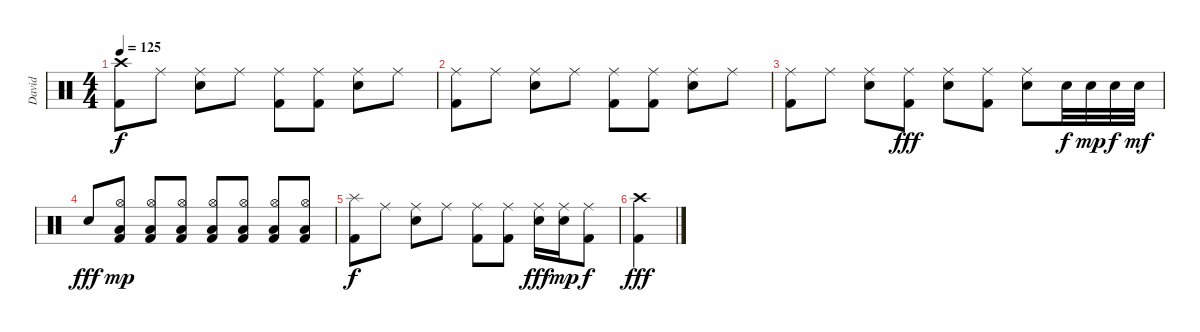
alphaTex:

\track ("David" "David") {instrument percussion}
\staff {score}
\articulation defaults
\ts (4 4)
\tempo 125
\clef neutral
\ks c
("Crash high (hit)" "Kick (hit) 2").8{dy f} "Ride (middle)".8 ("Ride (middle)" "Electric Snare (hit)").8 "Ride (middle)".8 ("Ride (middle)" "Kick (hit) 2").8 ("Ride (middle)" "Kick (hit) 2").8 ("Ride (middle)" "Electric Snare (hit)").8 "Ride (middle)".8 |
("Ride (middle)" "Kick (hit) 2").8 "Ride (middle)".8 ("Ride (middle)" "Electric Snare (hit)").8 "Ride (middle)".8 ("Ride (middle)" "Kick (hit) 2").8 ("Ride (middle)" "Kick (hit) 2").8 ("Ride (middle)" "Electric Snare (hit)").8 "Ride (middle)".8 |
("Ride (middle)" "Kick (hit) 2").8 "Ride (middle)".8 ("Ride (middle)" "Electric Snare (hit)").8 ("Ride (middle)" "Kick (hit) 2").8{dy fff} ("Ride (middle)" "Electric Snare (hit)").8 ("Ride (middle)" "Kick (hit) 2").8 ("Ride (middle)" "Electric Snare (hit)").8 "Electric Snare (hit)".32{dy f} "Electric Snare (hit)".32{dy mp} "Electric Snare (hit)".32{dy f} "Electric Snare (hit)".32{dy mf} |
"Electric Snare (hit)".8{dy fff} ("Hi-Hat (open)" "Low Floor Tom (hit)" "Kick (hit) 2").8{dy mp} ("Hi-Hat (open)" "Low Floor Tom (hit)" "Kick (hit) 2").8 ("Hi-Hat (open)" "Low Floor Tom (hit)" "Kick (hit) 2").8 ("Hi-Hat (open)" "Low Floor Tom (hit)" "Kick (hit) 2").8 ("Hi-Hat (open)" "Low Floor Tom (hit)" "Kick (hit) 2").8 ("Hi-Hat (open)" "Low Floor Tom (hit)" "Kick (hit) 2").8 ("Hi-Hat (open)" "Low Floor Tom (hit)" "Kick (hit) 2").8 |
("Splash (hit)" "Kick (hit) 2").8{dy f} "Ride (middle)".8 ("Ride (middle)" "Electric Snare (hit)").8 "Ride (middle)".8 ("Ride (middle)" "Kick (hit) 2").8 ("Ride (middle)" "Kick (hit) 2").8 ("Ride (middle)" "Electric Snare (hit)").16{dy fff} ("Ride (middle)" "Electric Snare (hit)").16{dy mp} ("Ride (middle)" "Kick (hit) 2").8{dy f} |
("Crash high (hit)" "Kick (hit) 2").4{dy fff}
